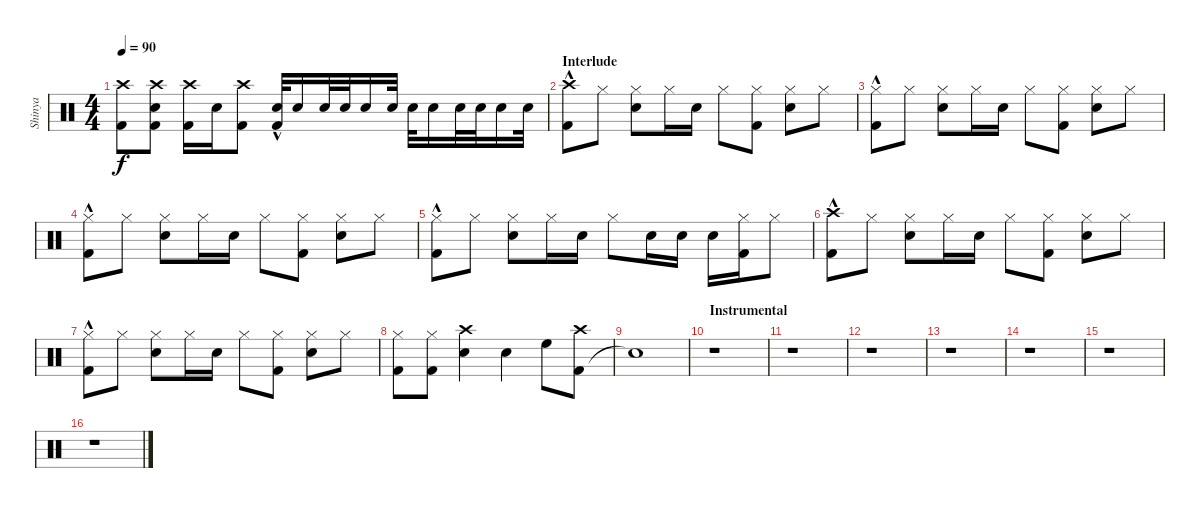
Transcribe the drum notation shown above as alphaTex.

\track ("Shinya" "Shinya") {instrument percussion}
\staff {score}
\articulation defaults
\ts (4 4)
\tempo 90
\clef neutral
\ks c
("Kick (hit) 2" "Crash high (hit)").8{dy f} ("Kick (hit) 2" "Snare (hit) 2" "Crash high (hit)").8 ("Kick (hit) 2" "Crash high (hit)").16 "Snare (hit) 2".16 ("Kick (hit) 2" "Crash high (hit)").8 ("Kick (hit) 2"{hac} "Snare (hit) 2").32 "Snare (hit) 2".16 "Snare (hit) 2".32 "Snare (hit) 2".32 "Snare (hit) 2".16 "Snare (hit) 2".32 "Snare (hit) 2".32 "Snare (hit) 2".16 "Snare (hit) 2".32 "Snare (hit) 2".32 "Snare (hit) 2".16 "Snare (hit) 2".32 |
\section ("" "Interlude")
("Kick (hit) 2"{hac} "Crash high (hit)").8 "Hi-Hat (closed)".8 ("Snare (hit) 2" "Hi-Hat (closed)").8 "Hi-Hat (closed)".16 "Snare (hit) 2".16 "Hi-Hat (closed)".8 ("Kick (hit) 2" "Hi-Hat (closed)").8 ("Snare (hit) 2" "Hi-Hat (closed)").8 "Hi-Hat (closed)".8 |
("Kick (hit) 2"{hac} "Hi-Hat (closed)").8 "Hi-Hat (closed)".8 ("Snare (hit) 2" "Hi-Hat (closed)").8 "Hi-Hat (closed)".16 "Snare (hit) 2".16 "Hi-Hat (closed)".8 ("Kick (hit) 2" "Hi-Hat (closed)").8 ("Snare (hit) 2" "Hi-Hat (closed)").8 "Hi-Hat (closed)".8 |
("Kick (hit) 2"{hac} "Hi-Hat (closed)").8 "Hi-Hat (closed)".8 ("Snare (hit) 2" "Hi-Hat (closed)").8 "Hi-Hat (closed)".16 "Snare (hit) 2".16 "Hi-Hat (closed)".8 ("Kick (hit) 2" "Hi-Hat (closed)").8 ("Snare (hit) 2" "Hi-Hat (closed)").8 "Hi-Hat (closed)".8 |
("Kick (hit) 2"{hac} "Hi-Hat (closed)").8 "Hi-Hat (closed)".8 ("Snare (hit) 2" "Hi-Hat (closed)").8 "Hi-Hat (closed)".16 "Snare (hit) 2".16 "Hi-Hat (closed)".8 "Snare (hit) 2".16 "Snare (hit) 2".16 "Snare (hit) 2".16 ("Kick (hit) 2" "Hi-Hat (closed)").16 "Hi-Hat (closed)".8 |
("Kick (hit) 2"{hac} "Crash high (hit)").8 "Hi-Hat (closed)".8 ("Snare (hit) 2" "Hi-Hat (closed)").8 "Hi-Hat (closed)".16 "Snare (hit) 2".16 "Hi-Hat (closed)".8 ("Kick (hit) 2" "Hi-Hat (closed)").8 ("Snare (hit) 2" "Hi-Hat (closed)").8 "Hi-Hat (closed)".8 |
("Kick (hit) 2"{hac} "Hi-Hat (closed)").8 "Hi-Hat (closed)".8 ("Snare (hit) 2" "Hi-Hat (closed)").8 "Hi-Hat (closed)".16 "Snare (hit) 2".16 "Hi-Hat (closed)".8 ("Kick (hit) 2" "Hi-Hat (closed)").8 ("Snare (hit) 2" "Hi-Hat (closed)").8 "Hi-Hat (closed)".8 |
("Kick (hit) 2" "Hi-Hat (closed)").8 ("Kick (hit) 2" "Hi-Hat (closed)").8 ("Snare (hit) 2" "Crash high (hit)").4 "Snare (hit) 2".4 "High Floor Tom (hit)".8 ("Kick (hit) 2" "Crash high (hit)").8 |
"Snare (hit)"{t}.1 |
\section ("" "Instrumental")
r.1 |
r.1 |
r.1 |
r.1 |
r.1 |
r.1 |
r.1
